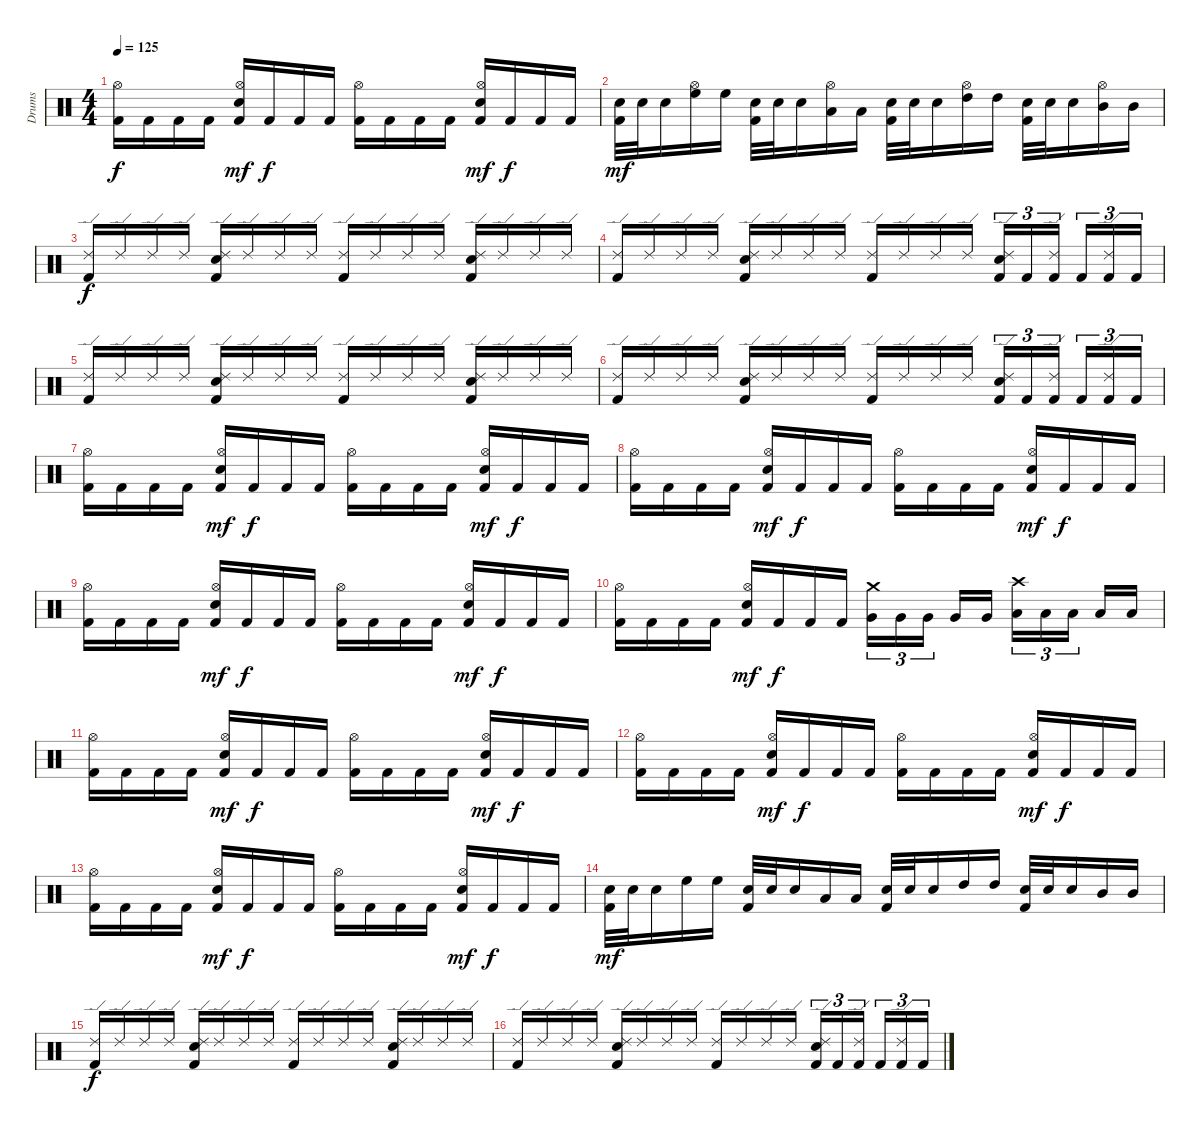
\track ("Drums" "Drums") {instrument percussion}
\staff {score}
\articulation defaults
\ts (4 4)
\tempo 125
\clef neutral
\ks c
("Kick (hit) 2" "Hi-Hat (open)").16{dy f} "Kick (hit) 2".16 "Kick (hit) 2".16 "Kick (hit) 2".16 ("Kick (hit) 2" "Electric Snare (hit)" "Hi-Hat (open)").16{dy mf} "Kick (hit) 2".16{dy f} "Kick (hit) 2".16 "Kick (hit) 2".16 ("Kick (hit) 2" "Hi-Hat (open)").16 "Kick (hit) 2".16 "Kick (hit) 2".16 "Kick (hit) 2".16 ("Kick (hit) 2" "Electric Snare (hit)" "Hi-Hat (open)").16{dy mf} "Kick (hit) 2".16{dy f} "Kick (hit) 2".16 "Kick (hit) 2".16 |
("Kick (hit) 2" "Electric Snare (hit)").32{dy mf} "Electric Snare (hit)".32 "Electric Snare (hit)".16 ("High Floor Tom (hit)" "Hi-Hat (open)").16 "High Floor Tom (hit)".16 ("Kick (hit) 2" "Electric Snare (hit)").32 "Electric Snare (hit)".32 "Electric Snare (hit)".16 ("Low Tom (hit)" "Hi-Hat (open)").16 "Low Tom (hit)".16 ("Kick (hit) 2" "Electric Snare (hit)").32 "Electric Snare (hit)".32 "Electric Snare (hit)".16 ("High Tom (hit)" "Hi-Hat (open)").16 "High Tom (hit)".16 ("Kick (hit) 2" "Electric Snare (hit)").32 "Electric Snare (hit)".32 "Electric Snare (hit)".16 ("Mid Tom (hit)" "Hi-Hat (open)").16 "Mid Tom (hit)".16 |
("Kick (hit) 2" "Ride (edge) 2").16{dy f} "Ride (edge) 2".16 "Ride (edge) 2".16 "Ride (edge) 2".16 ("Kick (hit) 2" "Electric Snare (hit)" "Ride (edge) 2").16 "Ride (edge) 2".16 "Ride (edge) 2".16 "Ride (edge) 2".16 ("Kick (hit) 2" "Ride (edge) 2").16 "Ride (edge) 2".16 "Ride (edge) 2".16 "Ride (edge) 2".16 ("Kick (hit) 2" "Electric Snare (hit)" "Ride (edge) 2").16 "Ride (edge) 2".16 "Ride (edge) 2".16 "Ride (edge) 2".16 |
("Kick (hit) 2" "Ride (edge) 2").16 "Ride (edge) 2".16 "Ride (edge) 2".16 "Ride (edge) 2".16 ("Kick (hit) 2" "Electric Snare (hit)" "Ride (edge) 2").16 "Ride (edge) 2".16 "Ride (edge) 2".16 "Ride (edge) 2".16 ("Kick (hit) 2" "Ride (edge) 2").16 "Ride (edge) 2".16 "Ride (edge) 2".16 "Ride (edge) 2".16 ("Kick (hit) 2" "Electric Snare (hit)" "Ride (edge) 2").16{tu (3 2)} "Kick (hit) 2".16{tu (3 2)} ("Kick (hit) 2" "Ride (edge) 2").16{tu (3 2)} "Kick (hit) 2".16{tu (3 2)} ("Kick (hit) 2" "Ride (edge) 2").16{tu (3 2)} "Kick (hit) 2".16{tu (3 2)} |
("Kick (hit) 2" "Ride (edge) 2").16 "Ride (edge) 2".16 "Ride (edge) 2".16 "Ride (edge) 2".16 ("Kick (hit) 2" "Electric Snare (hit)" "Ride (edge) 2").16 "Ride (edge) 2".16 "Ride (edge) 2".16 "Ride (edge) 2".16 ("Kick (hit) 2" "Ride (edge) 2").16 "Ride (edge) 2".16 "Ride (edge) 2".16 "Ride (edge) 2".16 ("Kick (hit) 2" "Electric Snare (hit)" "Ride (edge) 2").16 "Ride (edge) 2".16 "Ride (edge) 2".16 "Ride (edge) 2".16 |
("Kick (hit) 2" "Ride (edge) 2").16 "Ride (edge) 2".16 "Ride (edge) 2".16 "Ride (edge) 2".16 ("Kick (hit) 2" "Electric Snare (hit)" "Ride (edge) 2").16 "Ride (edge) 2".16 "Ride (edge) 2".16 "Ride (edge) 2".16 ("Kick (hit) 2" "Ride (edge) 2").16 "Ride (edge) 2".16 "Ride (edge) 2".16 "Ride (edge) 2".16 ("Kick (hit) 2" "Electric Snare (hit)" "Ride (edge) 2").16{tu (3 2)} "Kick (hit) 2".16{tu (3 2)} ("Kick (hit) 2" "Ride (edge) 2").16{tu (3 2)} "Kick (hit) 2".16{tu (3 2)} ("Kick (hit) 2" "Ride (edge) 2").16{tu (3 2)} "Kick (hit) 2".16{tu (3 2)} |
("Kick (hit) 2" "Hi-Hat (open)").16 "Kick (hit) 2".16 "Kick (hit) 2".16 "Kick (hit) 2".16 ("Kick (hit) 2" "Electric Snare (hit)" "Hi-Hat (open)").16{dy mf} "Kick (hit) 2".16{dy f} "Kick (hit) 2".16 "Kick (hit) 2".16 ("Kick (hit) 2" "Hi-Hat (open)").16 "Kick (hit) 2".16 "Kick (hit) 2".16 "Kick (hit) 2".16 ("Kick (hit) 2" "Electric Snare (hit)" "Hi-Hat (open)").16{dy mf} "Kick (hit) 2".16{dy f} "Kick (hit) 2".16 "Kick (hit) 2".16 |
("Kick (hit) 2" "Hi-Hat (open)").16 "Kick (hit) 2".16 "Kick (hit) 2".16 "Kick (hit) 2".16 ("Kick (hit) 2" "Electric Snare (hit)" "Hi-Hat (open)").16{dy mf} "Kick (hit) 2".16{dy f} "Kick (hit) 2".16 "Kick (hit) 2".16 ("Kick (hit) 2" "Hi-Hat (open)").16 "Kick (hit) 2".16 "Kick (hit) 2".16 "Kick (hit) 2".16 ("Kick (hit) 2" "Electric Snare (hit)" "Hi-Hat (open)").16{dy mf} "Kick (hit) 2".16{dy f} "Kick (hit) 2".16 "Kick (hit) 2".16 |
("Kick (hit) 2" "Hi-Hat (open)").16 "Kick (hit) 2".16 "Kick (hit) 2".16 "Kick (hit) 2".16 ("Kick (hit) 2" "Electric Snare (hit)" "Hi-Hat (open)").16{dy mf} "Kick (hit) 2".16{dy f} "Kick (hit) 2".16 "Kick (hit) 2".16 ("Kick (hit) 2" "Hi-Hat (open)").16 "Kick (hit) 2".16 "Kick (hit) 2".16 "Kick (hit) 2".16 ("Kick (hit) 2" "Electric Snare (hit)" "Hi-Hat (open)").16{dy mf} "Kick (hit) 2".16{dy f} "Kick (hit) 2".16 "Kick (hit) 2".16 |
("Kick (hit) 2" "Hi-Hat (open)").16 "Kick (hit) 2".16 "Kick (hit) 2".16 "Kick (hit) 2".16 ("Kick (hit) 2" "Electric Snare (hit)" "Hi-Hat (open)").16{dy mf} "Kick (hit) 2".16{dy f} "Kick (hit) 2".16 "Kick (hit) 2".16 ("Very Low Tom (hit)" "Crash medium (hit)").16{tu (3 2)} "Very Low Tom (hit)".16{tu (3 2)} "Very Low Tom (hit)".16{tu (3 2)} "Very Low Tom (hit)".16 "Very Low Tom (hit)".16 ("Low Tom (hit)" "Crash high (hit)").16{tu (3 2)} "Low Tom (hit)".16{tu (3 2)} "Low Tom (hit)".16{tu (3 2)} "Low Tom (hit)".16 "Low Tom (hit)".16 |
("Kick (hit) 2" "Hi-Hat (open)").16 "Kick (hit) 2".16 "Kick (hit) 2".16 "Kick (hit) 2".16 ("Kick (hit) 2" "Electric Snare (hit)" "Hi-Hat (open)").16{dy mf} "Kick (hit) 2".16{dy f} "Kick (hit) 2".16 "Kick (hit) 2".16 ("Kick (hit) 2" "Hi-Hat (open)").16 "Kick (hit) 2".16 "Kick (hit) 2".16 "Kick (hit) 2".16 ("Kick (hit) 2" "Electric Snare (hit)" "Hi-Hat (open)").16{dy mf} "Kick (hit) 2".16{dy f} "Kick (hit) 2".16 "Kick (hit) 2".16 |
("Kick (hit) 2" "Hi-Hat (open)").16 "Kick (hit) 2".16 "Kick (hit) 2".16 "Kick (hit) 2".16 ("Kick (hit) 2" "Electric Snare (hit)" "Hi-Hat (open)").16{dy mf} "Kick (hit) 2".16{dy f} "Kick (hit) 2".16 "Kick (hit) 2".16 ("Kick (hit) 2" "Hi-Hat (open)").16 "Kick (hit) 2".16 "Kick (hit) 2".16 "Kick (hit) 2".16 ("Kick (hit) 2" "Electric Snare (hit)" "Hi-Hat (open)").16{dy mf} "Kick (hit) 2".16{dy f} "Kick (hit) 2".16 "Kick (hit) 2".16 |
("Kick (hit) 2" "Hi-Hat (open)").16 "Kick (hit) 2".16 "Kick (hit) 2".16 "Kick (hit) 2".16 ("Kick (hit) 2" "Electric Snare (hit)" "Hi-Hat (open)").16{dy mf} "Kick (hit) 2".16{dy f} "Kick (hit) 2".16 "Kick (hit) 2".16 ("Kick (hit) 2" "Hi-Hat (open)").16 "Kick (hit) 2".16 "Kick (hit) 2".16 "Kick (hit) 2".16 ("Kick (hit) 2" "Electric Snare (hit)" "Hi-Hat (open)").16{dy mf} "Kick (hit) 2".16{dy f} "Kick (hit) 2".16 "Kick (hit) 2".16 |
("Kick (hit) 2" "Electric Snare (hit)").32{dy mf} "Electric Snare (hit)".32 "Electric Snare (hit)".16 "High Floor Tom (hit)".16 "High Floor Tom (hit)".16 ("Kick (hit) 2" "Electric Snare (hit)").32 "Electric Snare (hit)".32 "Electric Snare (hit)".16 "Low Tom (hit)".16 "Low Tom (hit)".16 ("Kick (hit) 2" "Electric Snare (hit)").32 "Electric Snare (hit)".32 "Electric Snare (hit)".16 "High Tom (hit)".16 "High Tom (hit)".16 ("Kick (hit) 2" "Electric Snare (hit)").32 "Electric Snare (hit)".32 "Electric Snare (hit)".16 "Mid Tom (hit)".16 "Mid Tom (hit)".16 |
("Kick (hit) 2" "Ride (edge) 2").16{dy f} "Ride (edge) 2".16 "Ride (edge) 2".16 "Ride (edge) 2".16 ("Kick (hit) 2" "Electric Snare (hit)" "Ride (edge) 2").16 "Ride (edge) 2".16 "Ride (edge) 2".16 "Ride (edge) 2".16 ("Kick (hit) 2" "Ride (edge) 2").16 "Ride (edge) 2".16 "Ride (edge) 2".16 "Ride (edge) 2".16 ("Kick (hit) 2" "Electric Snare (hit)" "Ride (edge) 2").16 "Ride (edge) 2".16 "Ride (edge) 2".16 "Ride (edge) 2".16 |
("Kick (hit) 2" "Ride (edge) 2").16 "Ride (edge) 2".16 "Ride (edge) 2".16 "Ride (edge) 2".16 ("Kick (hit) 2" "Electric Snare (hit)" "Ride (edge) 2").16 "Ride (edge) 2".16 "Ride (edge) 2".16 "Ride (edge) 2".16 ("Kick (hit) 2" "Ride (edge) 2").16 "Ride (edge) 2".16 "Ride (edge) 2".16 "Ride (edge) 2".16 ("Kick (hit) 2" "Electric Snare (hit)" "Ride (edge) 2").16{tu (3 2)} "Kick (hit) 2".16{tu (3 2)} ("Kick (hit) 2" "Ride (edge) 2").16{tu (3 2)} "Kick (hit) 2".16{tu (3 2)} ("Kick (hit) 2" "Ride (edge) 2").16{tu (3 2)} "Kick (hit) 2".16{tu (3 2)}
